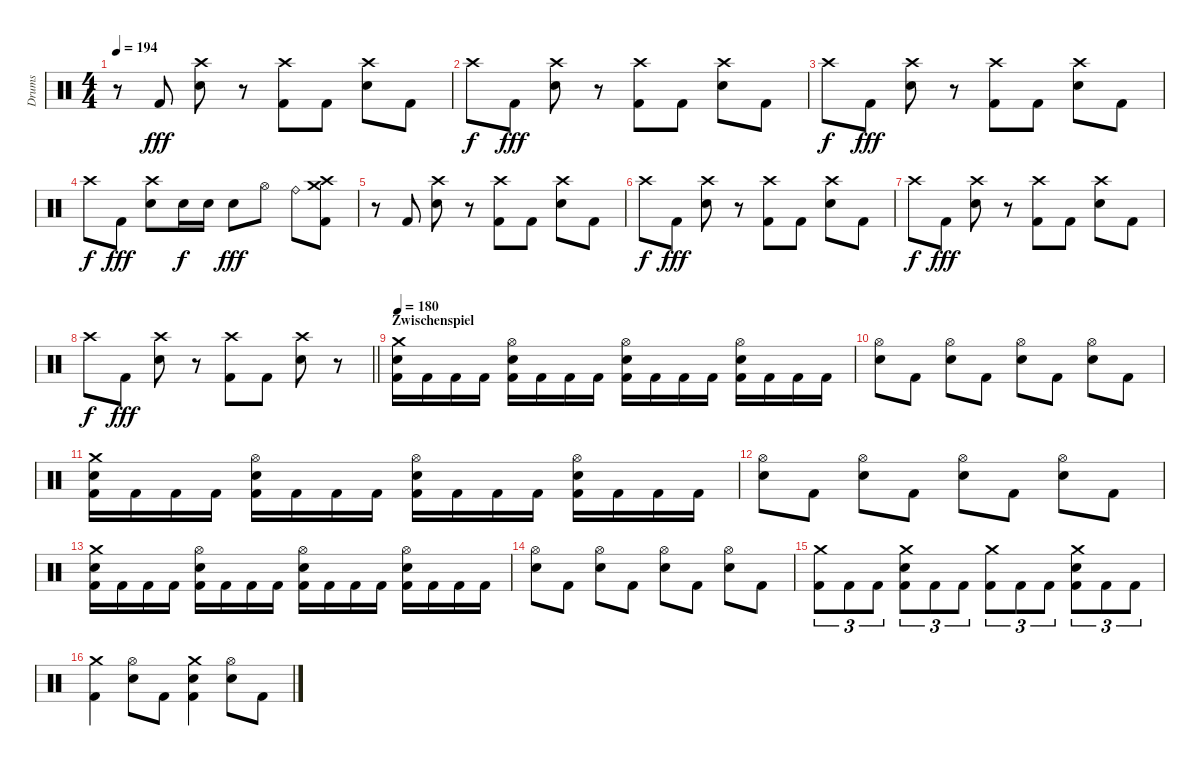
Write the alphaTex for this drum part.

\track ("Drums" "Drums") {instrument percussion}
\staff {score}
\articulation defaults
\ts (4 4)
\tempo 194
\clef neutral
\ks c
r.8{dy fff} "Kick (hit) 2".8 ("Crash high (hit)" "Electric Snare (hit)").8 r.8 ("Crash high (hit)" "Kick (hit) 2").8 "Kick (hit) 2".8 ("Crash high (hit)" "Electric Snare (hit)").8 "Kick (hit) 2".8 |
"Crash high (hit)".8{dy f} "Kick (hit) 2".8{dy fff} ("Crash high (hit)" "Electric Snare (hit)").8 r.8 ("Crash high (hit)" "Kick (hit) 2").8 "Kick (hit) 2".8 ("Crash high (hit)" "Electric Snare (hit)").8 "Kick (hit) 2".8 |
"Crash high (hit)".8{dy f} "Kick (hit) 2".8{dy fff} ("Crash high (hit)" "Electric Snare (hit)").8 r.8 ("Crash high (hit)" "Kick (hit) 2").8 "Kick (hit) 2".8 ("Crash high (hit)" "Electric Snare (hit)").8 "Kick (hit) 2".8 |
"Crash high (hit)".8{dy f} "Kick (hit) 2".8{dy fff} ("Crash high (hit)" "Electric Snare (hit)").8 "Electric Snare (hit)".16{dy f} "Electric Snare (hit)".16 "Electric Snare (hit)".8{dy fff} "Hi-Hat (open)".8 "Ride (bell)".8 ("Crash medium (hit)" "Crash high (hit)" "Kick (hit) 2").8 |
r.8 "Kick (hit) 2".8 ("Crash high (hit)" "Electric Snare (hit)").8 r.8 ("Crash high (hit)" "Kick (hit) 2").8 "Kick (hit) 2".8 ("Crash high (hit)" "Electric Snare (hit)").8 "Kick (hit) 2".8 |
"Crash high (hit)".8{dy f} "Kick (hit) 2".8{dy fff} ("Crash high (hit)" "Electric Snare (hit)").8 r.8 ("Crash high (hit)" "Kick (hit) 2").8 "Kick (hit) 2".8 ("Crash high (hit)" "Electric Snare (hit)").8 "Kick (hit) 2".8 |
"Crash high (hit)".8{dy f} "Kick (hit) 2".8{dy fff} ("Crash high (hit)" "Electric Snare (hit)").8 r.8 ("Crash high (hit)" "Kick (hit) 2").8 "Kick (hit) 2".8 ("Crash high (hit)" "Electric Snare (hit)").8 "Kick (hit) 2".8 |
\barLineRight lightlight "Crash high (hit)".8{dy f} "Kick (hit) 2".8{dy fff}
("Crash high (hit)" "Electric Snare (hit)").8 r.8 ("Crash high (hit)" "Kick (hit) 2").8 "Kick (hit) 2".8 ("Crash high (hit)" "Electric Snare (hit)").8 r.8 |
\section ("" "Zwischenspiel")
\tempo 180
("Crash medium (hit)" "Electric Snare (hit)" "Kick (hit) 2").16 "Kick (hit) 2".16 "Kick (hit) 2".16 "Kick (hit) 2".16 ("Hi-Hat (open)" "Electric Snare (hit)" "Kick (hit) 2").16 "Kick (hit) 2".16 "Kick (hit) 2".16 "Kick (hit) 2".16 ("Hi-Hat (open)" "Electric Snare (hit)" "Kick (hit) 2").16 "Kick (hit) 2".16 "Kick (hit) 2".16 "Kick (hit) 2".16 ("Hi-Hat (open)" "Electric Snare (hit)" "Kick (hit) 2").16 "Kick (hit) 2".16 "Kick (hit) 2".16 "Kick (hit) 2".16 |
("Hi-Hat (open)" "Electric Snare (hit)").8 "Kick (hit) 2".8 ("Hi-Hat (open)" "Electric Snare (hit)").8 "Kick (hit) 2".8 ("Hi-Hat (open)" "Electric Snare (hit)").8 "Kick (hit) 2".8 ("Hi-Hat (open)" "Electric Snare (hit)").8 "Kick (hit) 2".8 |
("Crash medium (hit)" "Electric Snare (hit)" "Kick (hit) 2").16 "Kick (hit) 2".16 "Kick (hit) 2".16 "Kick (hit) 2".16 ("Hi-Hat (open)" "Electric Snare (hit)" "Kick (hit) 2").16 "Kick (hit) 2".16 "Kick (hit) 2".16 "Kick (hit) 2".16 ("Hi-Hat (open)" "Electric Snare (hit)" "Kick (hit) 2").16 "Kick (hit) 2".16 "Kick (hit) 2".16 "Kick (hit) 2".16 ("Hi-Hat (open)" "Electric Snare (hit)" "Kick (hit) 2").16 "Kick (hit) 2".16 "Kick (hit) 2".16 "Kick (hit) 2".16 |
("Hi-Hat (open)" "Electric Snare (hit)").8 "Kick (hit) 2".8 ("Hi-Hat (open)" "Electric Snare (hit)").8 "Kick (hit) 2".8 ("Hi-Hat (open)" "Electric Snare (hit)").8 "Kick (hit) 2".8 ("Hi-Hat (open)" "Electric Snare (hit)").8 "Kick (hit) 2".8 |
("Crash medium (hit)" "Electric Snare (hit)" "Kick (hit) 2").16 "Kick (hit) 2".16 "Kick (hit) 2".16 "Kick (hit) 2".16 ("Hi-Hat (open)" "Electric Snare (hit)" "Kick (hit) 2").16 "Kick (hit) 2".16 "Kick (hit) 2".16 "Kick (hit) 2".16 ("Hi-Hat (open)" "Electric Snare (hit)" "Kick (hit) 2").16 "Kick (hit) 2".16 "Kick (hit) 2".16 "Kick (hit) 2".16 ("Hi-Hat (open)" "Electric Snare (hit)" "Kick (hit) 2").16 "Kick (hit) 2".16 "Kick (hit) 2".16 "Kick (hit) 2".16 |
("Hi-Hat (open)" "Electric Snare (hit)").8 "Kick (hit) 2".8 ("Hi-Hat (open)" "Electric Snare (hit)").8 "Kick (hit) 2".8 ("Hi-Hat (open)" "Electric Snare (hit)").8 "Kick (hit) 2".8 ("Hi-Hat (open)" "Electric Snare (hit)").8 "Kick (hit) 2".8 |
("Crash medium (hit)" "Kick (hit) 2").8{tu (3 2)} "Kick (hit) 2".8{tu (3 2)} "Kick (hit) 2".8{tu (3 2)} ("Crash medium (hit)" "Electric Snare (hit)" "Kick (hit) 2").8{tu (3 2)} "Kick (hit) 2".8{tu (3 2)} "Kick (hit) 2".8{tu (3 2)} ("Crash medium (hit)" "Kick (hit) 2").8{tu (3 2)} "Kick (hit) 2".8{tu (3 2)} "Kick (hit) 2".8{tu (3 2)} ("Crash medium (hit)" "Electric Snare (hit)" "Kick (hit) 2").8{tu (3 2)} "Kick (hit) 2".8{tu (3 2)} "Kick (hit) 2".8{tu (3 2)} |
("Crash medium (hit)" "Kick (hit) 2").4 ("Hi-Hat (open)" "Electric Snare (hit)").8 "Kick (hit) 2".8 ("Crash medium (hit)" "Electric Snare (hit)" "Kick (hit) 2").4 ("Hi-Hat (open)" "Electric Snare (hit)").8 "Kick (hit) 2".8
